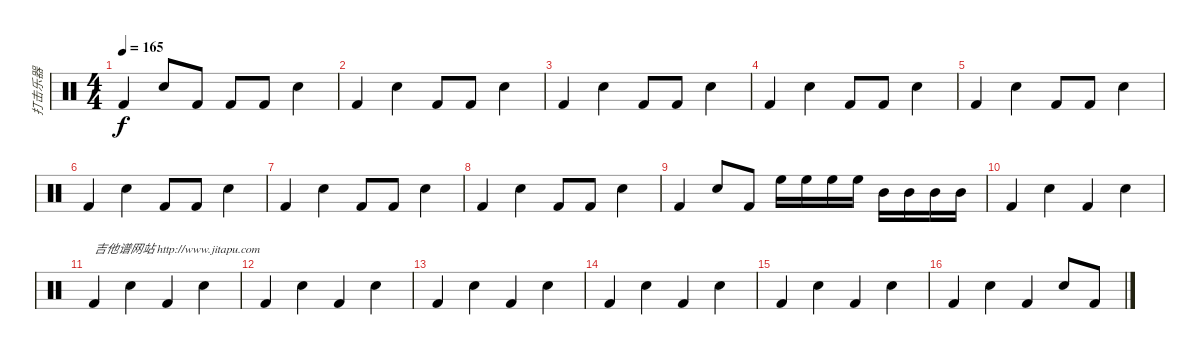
\track ("打击乐器" "打击乐器") {instrument percussion}
\staff {score}
\articulation defaults
\ts (4 4)
\tempo 165
\clef neutral
\ks c "Kick (hit) 2".4{dy f} "Snare (hit) 2".8 "Kick (hit) 2".8 "Kick (hit) 2".8 "Kick (hit) 2".8 "Snare (hit) 2".4
|
"Kick (hit) 2".4 "Snare (hit) 2".4 "Kick (hit) 2".8 "Kick (hit) 2".8 "Snare (hit) 2".4 |
"Kick (hit) 2".4 "Snare (hit) 2".4 "Kick (hit) 2".8 "Kick (hit) 2".8 "Snare (hit) 2".4 |
"Kick (hit) 2".4 "Snare (hit) 2".4 "Kick (hit) 2".8 "Kick (hit) 2".8 "Snare (hit) 2".4 |
"Kick (hit) 2".4 "Snare (hit) 2".4 "Kick (hit) 2".8 "Kick (hit) 2".8 "Snare (hit) 2".4 |
"Kick (hit) 2".4 "Snare (hit) 2".4 "Kick (hit) 2".8 "Kick (hit) 2".8 "Snare (hit) 2".4 |
"Kick (hit) 2".4 "Snare (hit) 2".4 "Kick (hit) 2".8 "Kick (hit) 2".8 "Snare (hit) 2".4 |
"Kick (hit) 2".4 "Snare (hit) 2".4 "Kick (hit) 2".8 "Kick (hit) 2".8 "Snare (hit) 2".4 |
"Kick (hit) 2".4 "Snare (hit) 2".8 "Kick (hit) 2".8 "High Floor Tom (hit)".16 "High Floor Tom (hit)".16 "High Floor Tom (hit)".16 "High Floor Tom (hit)".16 "Mid Tom (hit)".16 "Mid Tom (hit)".16 "Mid Tom (hit)".16 "Mid Tom (hit)".16 |
"Kick (hit) 2".4 "Snare (hit) 2".4 "Kick (hit) 2".4 "Snare (hit) 2".4 |
"Kick (hit) 2".4{txt "吉他谱网站 http://www.jitapu.com"} "Snare (hit) 2".4 "Kick (hit) 2".4 "Snare (hit) 2".4 |
"Kick (hit) 2".4 "Snare (hit) 2".4 "Kick (hit) 2".4 "Snare (hit) 2".4 |
"Kick (hit) 2".4 "Snare (hit) 2".4 "Kick (hit) 2".4 "Snare (hit) 2".4 |
"Kick (hit) 2".4 "Snare (hit) 2".4 "Kick (hit) 2".4 "Snare (hit) 2".4 |
"Kick (hit) 2".4 "Snare (hit) 2".4 "Kick (hit) 2".4 "Snare (hit) 2".4 |
"Kick (hit) 2".4 "Snare (hit) 2".4 "Kick (hit) 2".4 "Snare (hit) 2".8 "Kick (hit) 2".8
